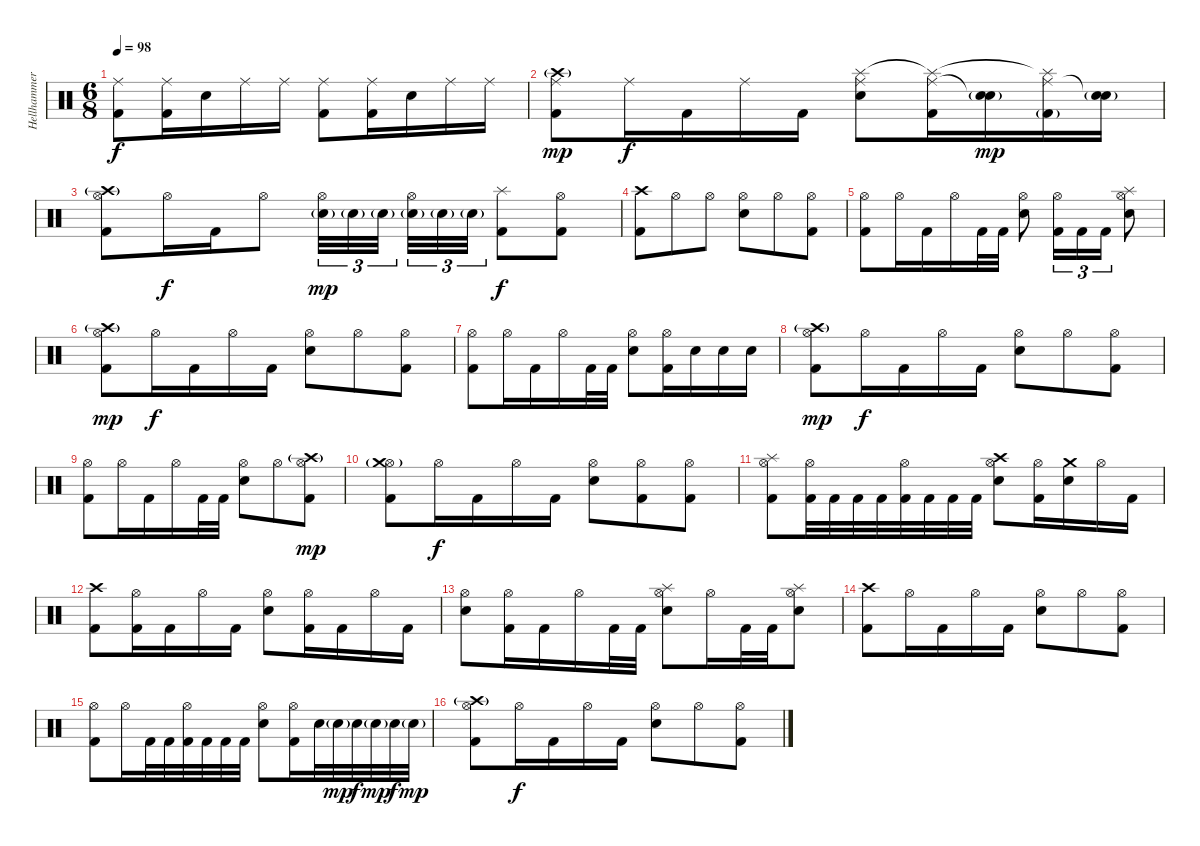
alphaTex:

\track ("Hellhammer (Drums)" "Hellhammer") {instrument percussion}
\staff {score}
\articulation defaults
\ts (6 8)
\tempo 98
\clef neutral
\ks c
("Kick (hit) 2" "Ride (middle)").8{dy f} ("Kick (hit) 2" "Ride (middle)").16 "Electric Snare (hit)".16 "Ride (middle)".16 "Ride (middle)".16 ("Kick (hit) 2" "Ride (middle)").8 ("Kick (hit) 2" "Ride (middle)").16 "Electric Snare (hit)".16 "Ride (middle)".16 "Ride (middle)".16 |
("Kick (hit) 2" "Ride (middle)" "Crash high (hit)"{g}).8{dy mp} "Ride (middle)".16{dy f} "Kick (hit) 2".16 "Ride (middle)".16 "Kick (hit) 2".16 ("Electric Snare (hit)" "Ride (middle)" "Splash (hit)").8 ("Kick (hit) 2" "Ride (middle)" "Splash (hit)"{t}).16 ("Electric Snare (hit)"{g} "Snare (hit)"{t}).16{dy mp} ("Kick (hit) 2"{g} "Ride (middle)" "Splash (hit)"{t}).16 ("Electric Snare (hit)"{g} "Snare (hit)"{t}).16 |
("Kick (hit) 2" "Hi-Hat (open)" "Crash high (hit)"{g}).8 "Hi-Hat (open)".16{dy f} "Kick (hit) 2".16 "Hi-Hat (open)".8 ("Electric Snare (hit)"{g} "Hi-Hat (open)").32{tu (3 2) dy mp} "Electric Snare (hit)"{g}.32{tu (3 2)} "Electric Snare (hit)"{g}.32{tu (3 2)} ("Electric Snare (hit)"{g} "Hi-Hat (open)").32{tu (3 2)} "Electric Snare (hit)"{g}.32{tu (3 2)} "Electric Snare (hit)"{g}.32{tu (3 2)} ("Kick (hit) 2" "Splash (hit)").8{dy f} ("Kick (hit) 2" "Hi-Hat (open)").8 |
("Kick (hit) 2" "Crash high (hit)").8 "Hi-Hat (open)".8 "Hi-Hat (open)".8 ("Electric Snare (hit)" "Hi-Hat (open)").8 "Hi-Hat (open)".8 ("Kick (hit) 2" "Hi-Hat (open)").8 |
("Kick (hit) 2" "Hi-Hat (open)").8 "Hi-Hat (open)".16 "Kick (hit) 2".16 "Hi-Hat (open)".16 "Kick (hit) 2".32 "Kick (hit) 2".32 ("Electric Snare (hit)" "Hi-Hat (open)").8 ("Kick (hit) 2" "Hi-Hat (open)").16{tu (3 2)} "Kick (hit) 2".16{tu (3 2)} "Kick (hit) 2".16{tu (3 2)} ("Electric Snare (hit)" "Hi-Hat (open)" "Splash (hit)").8 |
("Kick (hit) 2" "Hi-Hat (open)" "Crash high (hit)"{g}).8{dy mp} "Hi-Hat (open)".16{dy f} "Kick (hit) 2".16 "Hi-Hat (open)".16 "Kick (hit) 2".16 ("Electric Snare (hit)" "Hi-Hat (open)").8 "Hi-Hat (open)".8 ("Kick (hit) 2" "Hi-Hat (open)").8 |
("Kick (hit) 2" "Hi-Hat (open)").8 "Hi-Hat (open)".16 "Kick (hit) 2".16 "Hi-Hat (open)".16 "Kick (hit) 2".32 "Kick (hit) 2".32 ("Electric Snare (hit)" "Hi-Hat (open)").8 ("Kick (hit) 2" "Hi-Hat (open)").16 "Electric Snare (hit)".16 "Electric Snare (hit)".16 "Electric Snare (hit)".16 |
("Kick (hit) 2" "Hi-Hat (open)" "Crash high (hit)"{g}).8{dy mp} "Hi-Hat (open)".16{dy f} "Kick (hit) 2".16 "Hi-Hat (open)".16 "Kick (hit) 2".16 ("Electric Snare (hit)" "Hi-Hat (open)").8 "Hi-Hat (open)".8 ("Kick (hit) 2" "Hi-Hat (open)").8 |
("Kick (hit) 2" "Hi-Hat (open)").8 "Hi-Hat (open)".16 "Kick (hit) 2".16 "Hi-Hat (open)".16 "Kick (hit) 2".32 "Kick (hit) 2".32 ("Electric Snare (hit)" "Hi-Hat (open)").8 "Hi-Hat (open)".8 ("Kick (hit) 2" "Hi-Hat (open)" "Crash high (hit)"{g}).8{dy mp} |
("Kick (hit) 2" "Hi-Hat (open)" "Crash medium (hit)"{g}).8 "Hi-Hat (open)".16{dy f} "Kick (hit) 2".16 "Hi-Hat (open)".16 "Kick (hit) 2".16 ("Electric Snare (hit)" "Hi-Hat (open)").8 ("Kick (hit) 2" "Hi-Hat (open)").8 ("Kick (hit) 2" "Hi-Hat (open)").8 |
("Kick (hit) 2" "Hi-Hat (open)" "Splash (hit)").8 ("Kick (hit) 2" "Hi-Hat (open)").32 "Kick (hit) 2".32 "Kick (hit) 2".32 "Kick (hit) 2".32 ("Kick (hit) 2" "Hi-Hat (open)").32 "Kick (hit) 2".32 "Kick (hit) 2".32 "Kick (hit) 2".32 ("Electric Snare (hit)" "Hi-Hat (open)" "Crash high (hit)").8 ("Kick (hit) 2" "Hi-Hat (open)").16 ("Electric Snare (hit)" "Crash medium (hit)").16 "Hi-Hat (open)".16 "Kick (hit) 2".16 |
("Kick (hit) 2" "Crash high (hit)").8 ("Kick (hit) 2" "Hi-Hat (open)").16 "Kick (hit) 2".16 "Hi-Hat (open)".16 "Kick (hit) 2".16 ("Electric Snare (hit)" "Hi-Hat (open)").8 ("Kick (hit) 2" "Hi-Hat (open)").16 "Kick (hit) 2".16 "Hi-Hat (open)".16 "Kick (hit) 2".16 |
("Electric Snare (hit)" "Hi-Hat (open)").8 ("Kick (hit) 2" "Hi-Hat (open)").16 "Kick (hit) 2".16 "Hi-Hat (open)".16 "Kick (hit) 2".32 "Kick (hit) 2".32 ("Electric Snare (hit)" "Hi-Hat (open)" "Splash (hit)").8 "Hi-Hat (open)".16 "Kick (hit) 2".32 "Kick (hit) 2".32 ("Electric Snare (hit)" "Hi-Hat (open)" "Splash (hit)").8 |
("Kick (hit) 2" "Crash high (hit)").8 "Hi-Hat (open)".16 "Kick (hit) 2".16 "Hi-Hat (open)".16 "Kick (hit) 2".16 ("Electric Snare (hit)" "Hi-Hat (open)").8 "Hi-Hat (open)".8 ("Kick (hit) 2" "Hi-Hat (open)").8 |
("Kick (hit) 2" "Hi-Hat (open)").8 "Hi-Hat (open)".16 "Kick (hit) 2".32 "Kick (hit) 2".32 ("Kick (hit) 2" "Hi-Hat (open)").32 "Kick (hit) 2".32 "Kick (hit) 2".32 "Kick (hit) 2".32 ("Electric Snare (hit)" "Hi-Hat (open)").8 ("Kick (hit) 2" "Hi-Hat (open)").16 "Electric Snare (hit)".32 "Electric Snare (hit)"{g}.32{dy mp} "Electric Snare (hit)".32{dy f} "Electric Snare (hit)"{g}.32{dy mp} "Electric Snare (hit)".32{dy f} "Electric Snare (hit)"{g}.32{dy mp} |
("Kick (hit) 2" "Hi-Hat (open)" "Crash high (hit)"{g}).8 "Hi-Hat (open)".16{dy f} "Kick (hit) 2".16 "Hi-Hat (open)".16 "Kick (hit) 2".16 ("Electric Snare (hit)" "Hi-Hat (open)").8 "Hi-Hat (open)".8 ("Kick (hit) 2" "Hi-Hat (open)").8
